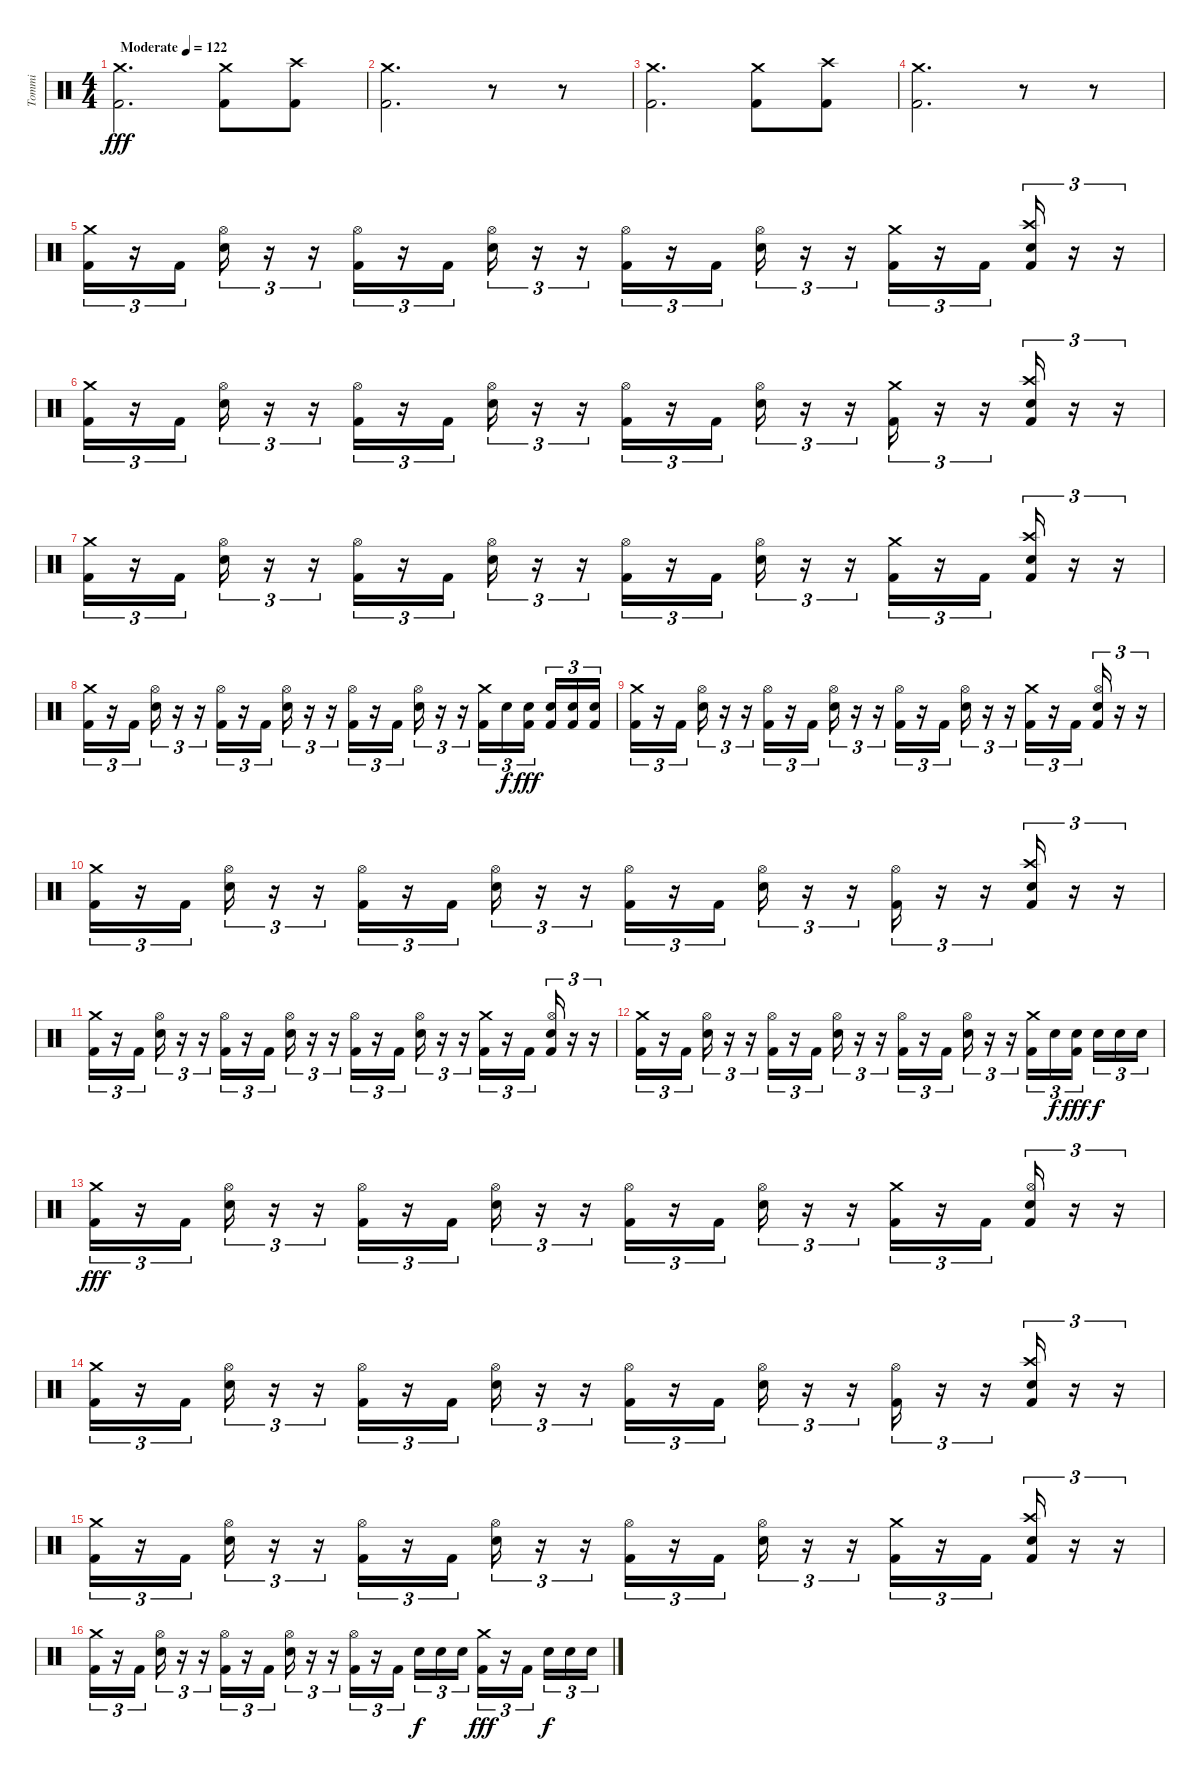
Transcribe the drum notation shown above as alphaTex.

\track ("Tommi" "Tommi") {instrument percussion}
\staff {score}
\articulation defaults
\ts (4 4)
\tempo (122 "Moderate")
\clef neutral
\ks c
("Crash medium (hit)" "Kick (hit) 2").2{d dy fff} ("Crash medium (hit)" "Kick (hit) 2").8 ("Crash high (hit)" "Kick (hit) 2").8 |
("Crash medium (hit)" "Kick (hit) 2").2{d} r.8 r.8 |
("Crash medium (hit)" "Kick (hit) 2").2{d} ("Crash medium (hit)" "Kick (hit) 2").8 ("Crash high (hit)" "Kick (hit) 2").8 |
("Crash medium (hit)" "Kick (hit) 2").2{d} r.8 r.8 |
("Crash medium (hit)" "Kick (hit) 2").16{tu (3 2)} r.16{tu (3 2)} "Kick (hit) 2".16{tu (3 2)} ("Hi-Hat (open)" "Snare (hit) 2").16{tu (3 2)} r.16{tu (3 2)} r.16{tu (3 2)} ("Hi-Hat (open)" "Kick (hit) 2").16{tu (3 2)} r.16{tu (3 2)} "Kick (hit) 2".16{tu (3 2)} ("Hi-Hat (open)" "Snare (hit) 2").16{tu (3 2)} r.16{tu (3 2)} r.16{tu (3 2)} ("Hi-Hat (open)" "Kick (hit) 2").16{tu (3 2)} r.16{tu (3 2)} "Kick (hit) 2".16{tu (3 2)} ("Hi-Hat (open)" "Snare (hit) 2").16{tu (3 2)} r.16{tu (3 2)} r.16{tu (3 2)} ("Crash medium (hit)" "Kick (hit) 2").16{tu (3 2)} r.16{tu (3 2)} "Kick (hit) 2".16{tu (3 2)} ("Crash high (hit)" "Snare (hit) 2" "Kick (hit) 2").16{tu (3 2)} r.16{tu (3 2)} r.16{tu (3 2)} |
("Crash medium (hit)" "Kick (hit) 2").16{tu (3 2)} r.16{tu (3 2)} "Kick (hit) 2".16{tu (3 2)} ("Hi-Hat (open)" "Snare (hit) 2").16{tu (3 2)} r.16{tu (3 2)} r.16{tu (3 2)} ("Hi-Hat (open)" "Kick (hit) 2").16{tu (3 2)} r.16{tu (3 2)} "Kick (hit) 2".16{tu (3 2)} ("Hi-Hat (open)" "Snare (hit) 2").16{tu (3 2)} r.16{tu (3 2)} r.16{tu (3 2)} ("Hi-Hat (open)" "Kick (hit) 2").16{tu (3 2)} r.16{tu (3 2)} "Kick (hit) 2".16{tu (3 2)} ("Hi-Hat (open)" "Snare (hit) 2").16{tu (3 2)} r.16{tu (3 2)} r.16{tu (3 2)} ("Crash medium (hit)" "Kick (hit) 2").16{tu (3 2)} r.16{tu (3 2)} r.16{tu (3 2)} ("Crash high (hit)" "Snare (hit) 2" "Kick (hit) 2").16{tu (3 2)} r.16{tu (3 2)} r.16{tu (3 2)} |
("Crash medium (hit)" "Kick (hit) 2").16{tu (3 2)} r.16{tu (3 2)} "Kick (hit) 2".16{tu (3 2)} ("Hi-Hat (open)" "Snare (hit) 2").16{tu (3 2)} r.16{tu (3 2)} r.16{tu (3 2)} ("Hi-Hat (open)" "Kick (hit) 2").16{tu (3 2)} r.16{tu (3 2)} "Kick (hit) 2".16{tu (3 2)} ("Hi-Hat (open)" "Snare (hit) 2").16{tu (3 2)} r.16{tu (3 2)} r.16{tu (3 2)} ("Hi-Hat (open)" "Kick (hit) 2").16{tu (3 2)} r.16{tu (3 2)} "Kick (hit) 2".16{tu (3 2)} ("Hi-Hat (open)" "Snare (hit) 2").16{tu (3 2)} r.16{tu (3 2)} r.16{tu (3 2)} ("Crash medium (hit)" "Kick (hit) 2").16{tu (3 2)} r.16{tu (3 2)} "Kick (hit) 2".16{tu (3 2)} ("Crash high (hit)" "Snare (hit) 2" "Kick (hit) 2").16{tu (3 2)} r.16{tu (3 2)} r.16{tu (3 2)} |
("Crash medium (hit)" "Kick (hit) 2").16{tu (3 2)} r.16{tu (3 2)} "Kick (hit) 2".16{tu (3 2)} ("Hi-Hat (open)" "Snare (hit) 2").16{tu (3 2)} r.16{tu (3 2)} r.16{tu (3 2)} ("Hi-Hat (open)" "Kick (hit) 2").16{tu (3 2)} r.16{tu (3 2)} "Kick (hit) 2".16{tu (3 2)} ("Hi-Hat (open)" "Snare (hit) 2").16{tu (3 2)} r.16{tu (3 2)} r.16{tu (3 2)} ("Hi-Hat (open)" "Kick (hit) 2").16{tu (3 2)} r.16{tu (3 2)} "Kick (hit) 2".16{tu (3 2)} ("Hi-Hat (open)" "Snare (hit) 2").16{tu (3 2)} r.16{tu (3 2)} r.16{tu (3 2)} ("Crash medium (hit)" "Kick (hit) 2").16{tu (3 2)} "Snare (hit) 2".16{tu (3 2) dy f} ("Snare (hit) 2" "Kick (hit) 2").16{tu (3 2) dy fff beam splitsecondary} ("Snare (hit) 2" "Kick (hit) 2").16{tu (3 2)} ("Snare (hit) 2" "Kick (hit) 2").16{tu (3 2)} ("Snare (hit) 2" "Kick (hit) 2").16{tu (3 2)} |
("Crash medium (hit)" "Kick (hit) 2").16{tu (3 2)} r.16{tu (3 2)} "Kick (hit) 2".16{tu (3 2)} ("Hi-Hat (open)" "Snare (hit) 2").16{tu (3 2)} r.16{tu (3 2)} r.16{tu (3 2)} ("Hi-Hat (open)" "Kick (hit) 2").16{tu (3 2)} r.16{tu (3 2)} "Kick (hit) 2".16{tu (3 2)} ("Hi-Hat (open)" "Snare (hit) 2").16{tu (3 2)} r.16{tu (3 2)} r.16{tu (3 2)} ("Hi-Hat (open)" "Kick (hit) 2").16{tu (3 2)} r.16{tu (3 2)} "Kick (hit) 2".16{tu (3 2)} ("Hi-Hat (open)" "Snare (hit) 2").16{tu (3 2)} r.16{tu (3 2)} r.16{tu (3 2)} ("Crash medium (hit)" "Kick (hit) 2").16{tu (3 2)} r.16{tu (3 2)} "Kick (hit) 2".16{tu (3 2)} ("Hi-Hat (open)" "Snare (hit) 2" "Kick (hit) 2").16{tu (3 2)} r.16{tu (3 2)} r.16{tu (3 2)} |
("Crash medium (hit)" "Kick (hit) 2").16{tu (3 2)} r.16{tu (3 2)} "Kick (hit) 2".16{tu (3 2)} ("Hi-Hat (open)" "Snare (hit) 2").16{tu (3 2)} r.16{tu (3 2)} r.16{tu (3 2)} ("Hi-Hat (open)" "Kick (hit) 2").16{tu (3 2)} r.16{tu (3 2)} "Kick (hit) 2".16{tu (3 2)} ("Hi-Hat (open)" "Snare (hit) 2").16{tu (3 2)} r.16{tu (3 2)} r.16{tu (3 2)} ("Hi-Hat (open)" "Kick (hit) 2").16{tu (3 2)} r.16{tu (3 2)} "Kick (hit) 2".16{tu (3 2)} ("Hi-Hat (open)" "Snare (hit) 2").16{tu (3 2)} r.16{tu (3 2)} r.16{tu (3 2)} ("Hi-Hat (open)" "Kick (hit) 2").16{tu (3 2)} r.16{tu (3 2)} r.16{tu (3 2)} ("Crash high (hit)" "Snare (hit) 2" "Kick (hit) 2").16{tu (3 2)} r.16{tu (3 2)} r.16{tu (3 2)} |
("Crash medium (hit)" "Kick (hit) 2").16{tu (3 2)} r.16{tu (3 2)} "Kick (hit) 2".16{tu (3 2)} ("Hi-Hat (open)" "Snare (hit) 2").16{tu (3 2)} r.16{tu (3 2)} r.16{tu (3 2)} ("Hi-Hat (open)" "Kick (hit) 2").16{tu (3 2)} r.16{tu (3 2)} "Kick (hit) 2".16{tu (3 2)} ("Hi-Hat (open)" "Snare (hit) 2").16{tu (3 2)} r.16{tu (3 2)} r.16{tu (3 2)} ("Hi-Hat (open)" "Kick (hit) 2").16{tu (3 2)} r.16{tu (3 2)} "Kick (hit) 2".16{tu (3 2)} ("Hi-Hat (open)" "Snare (hit) 2").16{tu (3 2)} r.16{tu (3 2)} r.16{tu (3 2)} ("Crash medium (hit)" "Kick (hit) 2").16{tu (3 2)} r.16{tu (3 2)} "Kick (hit) 2".16{tu (3 2)} ("Hi-Hat (open)" "Snare (hit) 2" "Kick (hit) 2").16{tu (3 2)} r.16{tu (3 2)} r.16{tu (3 2)} |
("Crash medium (hit)" "Kick (hit) 2").16{tu (3 2)} r.16{tu (3 2)} "Kick (hit) 2".16{tu (3 2)} ("Hi-Hat (open)" "Snare (hit) 2").16{tu (3 2)} r.16{tu (3 2)} r.16{tu (3 2)} ("Hi-Hat (open)" "Kick (hit) 2").16{tu (3 2)} r.16{tu (3 2)} "Kick (hit) 2".16{tu (3 2)} ("Hi-Hat (open)" "Snare (hit) 2").16{tu (3 2)} r.16{tu (3 2)} r.16{tu (3 2)} ("Hi-Hat (open)" "Kick (hit) 2").16{tu (3 2)} r.16{tu (3 2)} "Kick (hit) 2".16{tu (3 2)} ("Hi-Hat (open)" "Snare (hit) 2").16{tu (3 2)} r.16{tu (3 2)} r.16{tu (3 2)} ("Crash medium (hit)" "Kick (hit) 2").16{tu (3 2)} "Snare (hit) 2".16{tu (3 2) dy f} ("Snare (hit) 2" "Kick (hit) 2").16{tu (3 2) dy fff beam splitsecondary} "Snare (hit) 2".16{tu (3 2) dy f} "Snare (hit) 2".16{tu (3 2)} "Snare (hit) 2".16{tu (3 2)} |
("Crash medium (hit)" "Kick (hit) 2").16{tu (3 2) dy fff} r.16{tu (3 2)} "Kick (hit) 2".16{tu (3 2)} ("Hi-Hat (open)" "Snare (hit) 2").16{tu (3 2)} r.16{tu (3 2)} r.16{tu (3 2)} ("Hi-Hat (open)" "Kick (hit) 2").16{tu (3 2)} r.16{tu (3 2)} "Kick (hit) 2".16{tu (3 2)} ("Hi-Hat (open)" "Snare (hit) 2").16{tu (3 2)} r.16{tu (3 2)} r.16{tu (3 2)} ("Hi-Hat (open)" "Kick (hit) 2").16{tu (3 2)} r.16{tu (3 2)} "Kick (hit) 2".16{tu (3 2)} ("Hi-Hat (open)" "Snare (hit) 2").16{tu (3 2)} r.16{tu (3 2)} r.16{tu (3 2)} ("Crash medium (hit)" "Kick (hit) 2").16{tu (3 2)} r.16{tu (3 2)} "Kick (hit) 2".16{tu (3 2)} ("Hi-Hat (open)" "Snare (hit) 2" "Kick (hit) 2").16{tu (3 2)} r.16{tu (3 2)} r.16{tu (3 2)} |
("Crash medium (hit)" "Kick (hit) 2").16{tu (3 2)} r.16{tu (3 2)} "Kick (hit) 2".16{tu (3 2)} ("Hi-Hat (open)" "Snare (hit) 2").16{tu (3 2)} r.16{tu (3 2)} r.16{tu (3 2)} ("Hi-Hat (open)" "Kick (hit) 2").16{tu (3 2)} r.16{tu (3 2)} "Kick (hit) 2".16{tu (3 2)} ("Hi-Hat (open)" "Snare (hit) 2").16{tu (3 2)} r.16{tu (3 2)} r.16{tu (3 2)} ("Hi-Hat (open)" "Kick (hit) 2").16{tu (3 2)} r.16{tu (3 2)} "Kick (hit) 2".16{tu (3 2)} ("Hi-Hat (open)" "Snare (hit) 2").16{tu (3 2)} r.16{tu (3 2)} r.16{tu (3 2)} ("Hi-Hat (open)" "Kick (hit) 2").16{tu (3 2)} r.16{tu (3 2)} r.16{tu (3 2)} ("Crash high (hit)" "Snare (hit) 2" "Kick (hit) 2").16{tu (3 2)} r.16{tu (3 2)} r.16{tu (3 2)} |
("Crash medium (hit)" "Kick (hit) 2").16{tu (3 2)} r.16{tu (3 2)} "Kick (hit) 2".16{tu (3 2)} ("Hi-Hat (open)" "Snare (hit) 2").16{tu (3 2)} r.16{tu (3 2)} r.16{tu (3 2)} ("Hi-Hat (open)" "Kick (hit) 2").16{tu (3 2)} r.16{tu (3 2)} "Kick (hit) 2".16{tu (3 2)} ("Hi-Hat (open)" "Snare (hit) 2").16{tu (3 2)} r.16{tu (3 2)} r.16{tu (3 2)} ("Hi-Hat (open)" "Kick (hit) 2").16{tu (3 2)} r.16{tu (3 2)} "Kick (hit) 2".16{tu (3 2)} ("Hi-Hat (open)" "Snare (hit) 2").16{tu (3 2)} r.16{tu (3 2)} r.16{tu (3 2)} ("Crash medium (hit)" "Kick (hit) 2").16{tu (3 2)} r.16{tu (3 2)} "Kick (hit) 2".16{tu (3 2)} ("Crash high (hit)" "Snare (hit) 2" "Kick (hit) 2").16{tu (3 2)} r.16{tu (3 2)} r.16{tu (3 2)} |
("Crash medium (hit)" "Kick (hit) 2").16{tu (3 2)} r.16{tu (3 2)} "Kick (hit) 2".16{tu (3 2)} ("Hi-Hat (open)" "Snare (hit) 2").16{tu (3 2)} r.16{tu (3 2)} r.16{tu (3 2)} ("Hi-Hat (open)" "Kick (hit) 2").16{tu (3 2)} r.16{tu (3 2)} "Kick (hit) 2".16{tu (3 2)} ("Hi-Hat (open)" "Snare (hit) 2").16{tu (3 2)} r.16{tu (3 2)} r.16{tu (3 2)} ("Hi-Hat (open)" "Kick (hit) 2").16{tu (3 2)} r.16{tu (3 2)} "Kick (hit) 2".16{tu (3 2) beam splitsecondary} "Snare (hit) 2".16{tu (3 2) dy f} "Snare (hit) 2".16{tu (3 2)} "Snare (hit) 2".16{tu (3 2)} ("Crash medium (hit)" "Kick (hit) 2").16{tu (3 2) dy fff} r.16{tu (3 2)} "Kick (hit) 2".16{tu (3 2) beam splitsecondary} "Snare (hit) 2".16{tu (3 2) dy f} "Snare (hit) 2".16{tu (3 2)} "Snare (hit) 2".16{tu (3 2)}
